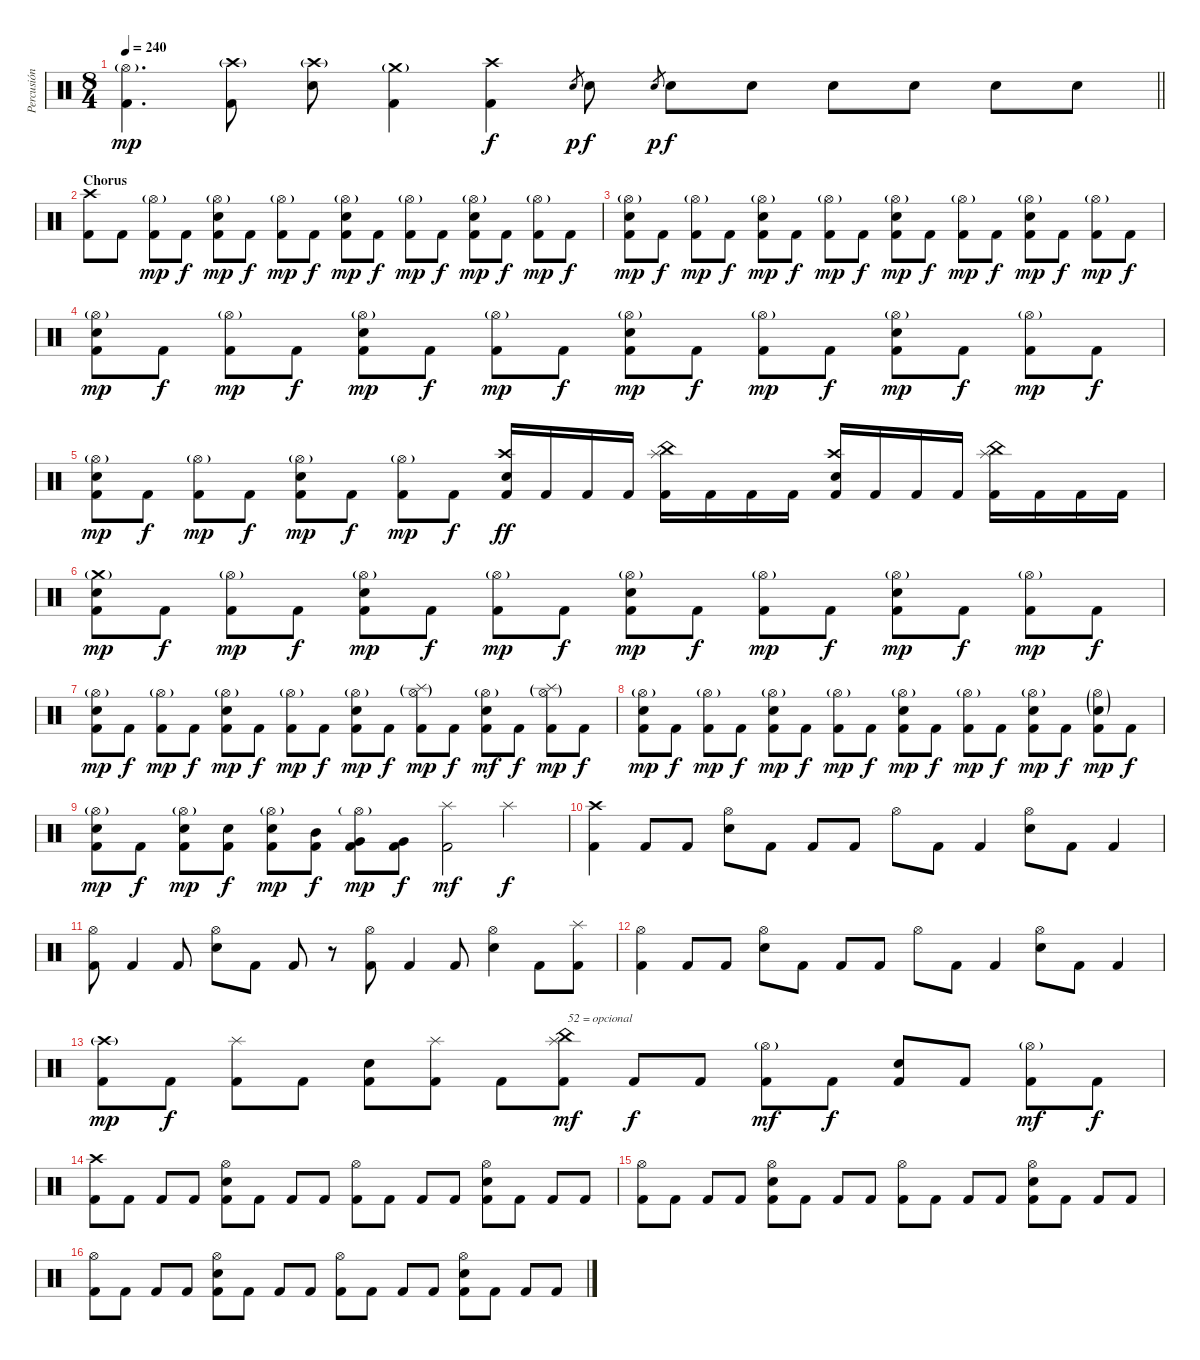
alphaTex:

\track ("Percusión" "Percusión") {instrument percussion}
\staff {score}
\articulation defaults
\ts (8 4)
\tempo 240
\clef neutral
\barLineRight lightlight
\ks c
("Hi-Hat (open)"{g} "Kick (hit) 2").4{d dy mp} ("Crash high (hit)"{g} "Kick (hit) 2").8 ("Crash high (hit)"{g} "Electric Snare (hit)").8 ("Crash medium (hit)"{g} "Kick (hit) 2").4 ("Crash high (hit)" "Kick (hit) 2").4{dy f} "Electric Snare (hit)".8{gr dy p} "Electric Snare (hit)".8{dy f} "Electric Snare (hit)".8{gr dy p} "Electric Snare (hit)".8{dy f} "Electric Snare (hit)".8 "Electric Snare (hit)".8 "Electric Snare (hit)".8 "Electric Snare (hit)".8 "Electric Snare (hit)".8 |
\section ("" "Chorus")
("Crash high (hit)" "Kick (hit) 2").8 "Kick (hit) 2".8 ("Hi-Hat (open)"{g} "Kick (hit) 2").8{dy mp} "Kick (hit) 2".8{dy f} ("Hi-Hat (open)"{g} "Electric Snare (hit)" "Kick (hit) 2").8{dy mp} "Kick (hit) 2".8{dy f} ("Hi-Hat (open)"{g} "Kick (hit) 2").8{dy mp} "Kick (hit) 2".8{dy f} ("Hi-Hat (open)"{g} "Electric Snare (hit)" "Kick (hit) 2").8{dy mp} "Kick (hit) 2".8{dy f} ("Hi-Hat (open)"{g} "Kick (hit) 2").8{dy mp} "Kick (hit) 2".8{dy f} ("Hi-Hat (open)"{g} "Electric Snare (hit)" "Kick (hit) 2").8{dy mp} "Kick (hit) 2".8{dy f} ("Hi-Hat (open)"{g} "Kick (hit) 2").8{dy mp} "Kick (hit) 2".8{dy f} |
("Hi-Hat (open)"{g} "Electric Snare (hit)" "Kick (hit) 2").8{dy mp} "Kick (hit) 2".8{dy f} ("Hi-Hat (open)"{g} "Kick (hit) 2").8{dy mp} "Kick (hit) 2".8{dy f} ("Hi-Hat (open)"{g} "Electric Snare (hit)" "Kick (hit) 2").8{dy mp} "Kick (hit) 2".8{dy f} ("Hi-Hat (open)"{g} "Kick (hit) 2").8{dy mp} "Kick (hit) 2".8{dy f} ("Hi-Hat (open)"{g} "Electric Snare (hit)" "Kick (hit) 2").8{dy mp} "Kick (hit) 2".8{dy f} ("Hi-Hat (open)"{g} "Kick (hit) 2").8{dy mp} "Kick (hit) 2".8{dy f} ("Hi-Hat (open)"{g} "Electric Snare (hit)" "Kick (hit) 2").8{dy mp} "Kick (hit) 2".8{dy f} ("Hi-Hat (open)"{g} "Kick (hit) 2").8{dy mp} "Kick (hit) 2".8{dy f} |
("Hi-Hat (open)"{g} "Electric Snare (hit)" "Kick (hit) 2").8{dy mp} "Kick (hit) 2".8{dy f} ("Hi-Hat (open)"{g} "Kick (hit) 2").8{dy mp} "Kick (hit) 2".8{dy f} ("Hi-Hat (open)"{g} "Electric Snare (hit)" "Kick (hit) 2").8{dy mp} "Kick (hit) 2".8{dy f} ("Hi-Hat (open)"{g} "Kick (hit) 2").8{dy mp} "Kick (hit) 2".8{dy f} ("Hi-Hat (open)"{g} "Electric Snare (hit)" "Kick (hit) 2").8{dy mp} "Kick (hit) 2".8{dy f} ("Hi-Hat (open)"{g} "Kick (hit) 2").8{dy mp} "Kick (hit) 2".8{dy f} ("Hi-Hat (open)"{g} "Electric Snare (hit)" "Kick (hit) 2").8{dy mp} "Kick (hit) 2".8{dy f} ("Hi-Hat (open)"{g} "Kick (hit) 2").8{dy mp} "Kick (hit) 2".8{dy f} |
("Hi-Hat (open)"{g} "Electric Snare (hit)" "Kick (hit) 2").8{dy mp} "Kick (hit) 2".8{dy f} ("Hi-Hat (open)"{g} "Kick (hit) 2").8{dy mp} "Kick (hit) 2".8{dy f} ("Hi-Hat (open)"{g} "Electric Snare (hit)" "Kick (hit) 2").8{dy mp} "Kick (hit) 2".8{dy f} ("Hi-Hat (open)"{g} "Kick (hit) 2").8{dy mp} "Kick (hit) 2".8{dy f} ("Crash high (hit)" "Electric Snare (hit)" "Kick (hit) 2").16{dy ff} "Kick (hit) 2".16 "Kick (hit) 2".16 "Kick (hit) 2".16 ("Splash (hit)" "China (hit)" "Kick (hit) 2").16 "Kick (hit) 2".16 "Kick (hit) 2".16 "Kick (hit) 2".16 ("Crash high (hit)" "Electric Snare (hit)" "Kick (hit) 2").16 "Kick (hit) 2".16 "Kick (hit) 2".16 "Kick (hit) 2".16 ("Splash (hit)" "China (hit)" "Kick (hit) 2").16 "Kick (hit) 2".16 "Kick (hit) 2".16 "Kick (hit) 2".16 |
("Crash medium (hit)"{g} "Electric Snare (hit)" "Kick (hit) 2").8{dy mp} "Kick (hit) 2".8{dy f} ("Hi-Hat (open)"{g} "Kick (hit) 2").8{dy mp} "Kick (hit) 2".8{dy f} ("Hi-Hat (open)"{g} "Electric Snare (hit)" "Kick (hit) 2").8{dy mp} "Kick (hit) 2".8{dy f} ("Hi-Hat (open)"{g} "Kick (hit) 2").8{dy mp} "Kick (hit) 2".8{dy f} ("Hi-Hat (open)"{g} "Electric Snare (hit)" "Kick (hit) 2").8{dy mp} "Kick (hit) 2".8{dy f} ("Hi-Hat (open)"{g} "Kick (hit) 2").8{dy mp} "Kick (hit) 2".8{dy f} ("Hi-Hat (open)"{g} "Electric Snare (hit)" "Kick (hit) 2").8{dy mp} "Kick (hit) 2".8{dy f} ("Hi-Hat (open)"{g} "Kick (hit) 2").8{dy mp} "Kick (hit) 2".8{dy f} |
("Hi-Hat (open)"{g} "Electric Snare (hit)" "Kick (hit) 2").8{dy mp} "Kick (hit) 2".8{dy f} ("Hi-Hat (open)"{g} "Kick (hit) 2").8{dy mp} "Kick (hit) 2".8{dy f} ("Hi-Hat (open)"{g} "Electric Snare (hit)" "Kick (hit) 2").8{dy mp} "Kick (hit) 2".8{dy f} ("Hi-Hat (open)"{g} "Kick (hit) 2").8{dy mp} "Kick (hit) 2".8{dy f} ("Hi-Hat (open)"{g} "Electric Snare (hit)" "Kick (hit) 2").8{dy mp} "Kick (hit) 2".8{dy f} ("Splash (hit)"{g} "Hi-Hat (open)"{g} "Kick (hit) 2").8{dy mp} "Kick (hit) 2".8{dy f} ("Hi-Hat (open)"{g} "Electric Snare (hit)" "Kick (hit) 2").8{dy mf} "Kick (hit) 2".8{dy f} ("Splash (hit)"{g} "Hi-Hat (open)"{g} "Kick (hit) 2").8{dy mp} "Kick (hit) 2".8{dy f} |
("Hi-Hat (open)"{g} "Electric Snare (hit)" "Kick (hit) 2").8{dy mp} "Kick (hit) 2".8{dy f} ("Hi-Hat (open)"{g} "Kick (hit) 2").8{dy mp} "Kick (hit) 2".8{dy f} ("Hi-Hat (open)"{g} "Electric Snare (hit)" "Kick (hit) 2").8{dy mp} "Kick (hit) 2".8{dy f} ("Hi-Hat (open)"{g} "Kick (hit) 2").8{dy mp} "Kick (hit) 2".8{dy f} ("Hi-Hat (open)"{g} "Electric Snare (hit)" "Kick (hit) 2").8{dy mp} "Kick (hit) 2".8{dy f} ("Hi-Hat (open)"{g} "Kick (hit) 2").8{dy mp} "Kick (hit) 2".8{dy f} ("Hi-Hat (open)"{g} "Electric Snare (hit)" "Kick (hit) 2").8{dy mp} "Kick (hit) 2".8{dy f} ("Hi-Hat (open)"{g} "Electric Snare (hit)"{g} "Kick (hit) 2").8{dy mp} "Kick (hit) 2".8{dy f} |
("Hi-Hat (open)"{g} "Electric Snare (hit)" "Kick (hit) 2").8{dy mp} "Kick (hit) 2".8{dy f} ("Hi-Hat (open)"{g} "Electric Snare (hit)" "Kick (hit) 2").8{dy mp} ("Electric Snare (hit)" "Kick (hit) 2").8{dy f} ("Hi-Hat (open)"{g} "Electric Snare (hit)" "Kick (hit) 2").8{dy mp} ("Mid Tom (hit)" "Kick (hit) 2").8{dy f} ("Hi-Hat (open)"{g} "Very Low Tom (hit)" "Kick (hit) 2").8{dy mp} ("Very Low Tom (hit)" "Kick (hit) 2").8{dy f} ("Splash (hit)" "Kick (hit) 2").2{dy mf} "Splash (hit)".2{dy f} |
("Crash high (hit)" "Kick (hit) 2").4 "Kick (hit) 2".8 "Kick (hit) 2".8 ("Hi-Hat (open)" "Electric Snare (hit)").8 "Kick (hit) 2".8 "Kick (hit) 2".8 "Kick (hit) 2".8 "Hi-Hat (open)".8 "Kick (hit) 2".8 "Kick (hit) 2".4 ("Hi-Hat (open)" "Electric Snare (hit)").8 "Kick (hit) 2".8 "Kick (hit) 2".4 |
("Hi-Hat (open)" "Kick (hit) 2").8 "Kick (hit) 2".4 "Kick (hit) 2".8 ("Hi-Hat (open)" "Electric Snare (hit)").8 "Kick (hit) 2".8 "Kick (hit) 2".8 r.8 ("Hi-Hat (open)" "Kick (hit) 2").8 "Kick (hit) 2".4 "Kick (hit) 2".8 ("Hi-Hat (open)" "Electric Snare (hit)").4 "Kick (hit) 2".8 ("Splash (hit)" "Kick (hit) 2").8 |
("Hi-Hat (open)" "Kick (hit) 2").4 "Kick (hit) 2".8 "Kick (hit) 2".8 ("Hi-Hat (open)" "Electric Snare (hit)").8 "Kick (hit) 2".8 "Kick (hit) 2".8 "Kick (hit) 2".8 "Hi-Hat (open)".8 "Kick (hit) 2".8 "Kick (hit) 2".4 ("Hi-Hat (open)" "Electric Snare (hit)").8 "Kick (hit) 2".8 "Kick (hit) 2".4 |
("Crash high (hit)"{g} "Kick (hit) 2").8{dy mp} "Kick (hit) 2".8{dy f} ("Splash (hit)" "Kick (hit) 2").8 "Kick (hit) 2".8 ("Electric Snare (hit)" "Kick (hit) 2").8 ("Splash (hit)" "Kick (hit) 2").8 "Kick (hit) 2".8 ("Splash (hit)" "China (hit)" "Kick (hit) 2").8{txt "52 = opcional" dy mf} "Kick (hit) 2".8{dy f} "Kick (hit) 2".8 ("Hi-Hat (open)"{g} "Kick (hit) 2").8{dy mf} "Kick (hit) 2".8{dy f} ("Electric Snare (hit)" "Kick (hit) 2").8 "Kick (hit) 2".8 ("Hi-Hat (open)"{g} "Kick (hit) 2").8{dy mf} "Kick (hit) 2".8{dy f} |
("Crash high (hit)" "Kick (hit) 2").8 "Kick (hit) 2".8 "Kick (hit) 2".8 "Kick (hit) 2".8 ("Hi-Hat (open)" "Electric Snare (hit)" "Kick (hit) 2").8 "Kick (hit) 2".8 "Kick (hit) 2".8 "Kick (hit) 2".8 ("Hi-Hat (open)" "Kick (hit) 2").8 "Kick (hit) 2".8 "Kick (hit) 2".8 "Kick (hit) 2".8 ("Hi-Hat (open)" "Electric Snare (hit)" "Kick (hit) 2").8 "Kick (hit) 2".8 "Kick (hit) 2".8 "Kick (hit) 2".8 |
("Hi-Hat (open)" "Kick (hit) 2").8 "Kick (hit) 2".8 "Kick (hit) 2".8 "Kick (hit) 2".8 ("Hi-Hat (open)" "Electric Snare (hit)" "Kick (hit) 2").8 "Kick (hit) 2".8 "Kick (hit) 2".8 "Kick (hit) 2".8 ("Hi-Hat (open)" "Kick (hit) 2").8 "Kick (hit) 2".8 "Kick (hit) 2".8 "Kick (hit) 2".8 ("Hi-Hat (open)" "Electric Snare (hit)" "Kick (hit) 2").8 "Kick (hit) 2".8 "Kick (hit) 2".8 "Kick (hit) 2".8 |
("Hi-Hat (open)" "Kick (hit) 2").8 "Kick (hit) 2".8 "Kick (hit) 2".8 "Kick (hit) 2".8 ("Hi-Hat (open)" "Electric Snare (hit)" "Kick (hit) 2").8 "Kick (hit) 2".8 "Kick (hit) 2".8 "Kick (hit) 2".8 ("Hi-Hat (open)" "Kick (hit) 2").8 "Kick (hit) 2".8 "Kick (hit) 2".8 "Kick (hit) 2".8 ("Hi-Hat (open)" "Electric Snare (hit)" "Kick (hit) 2").8 "Kick (hit) 2".8 "Kick (hit) 2".8 "Kick (hit) 2".8
